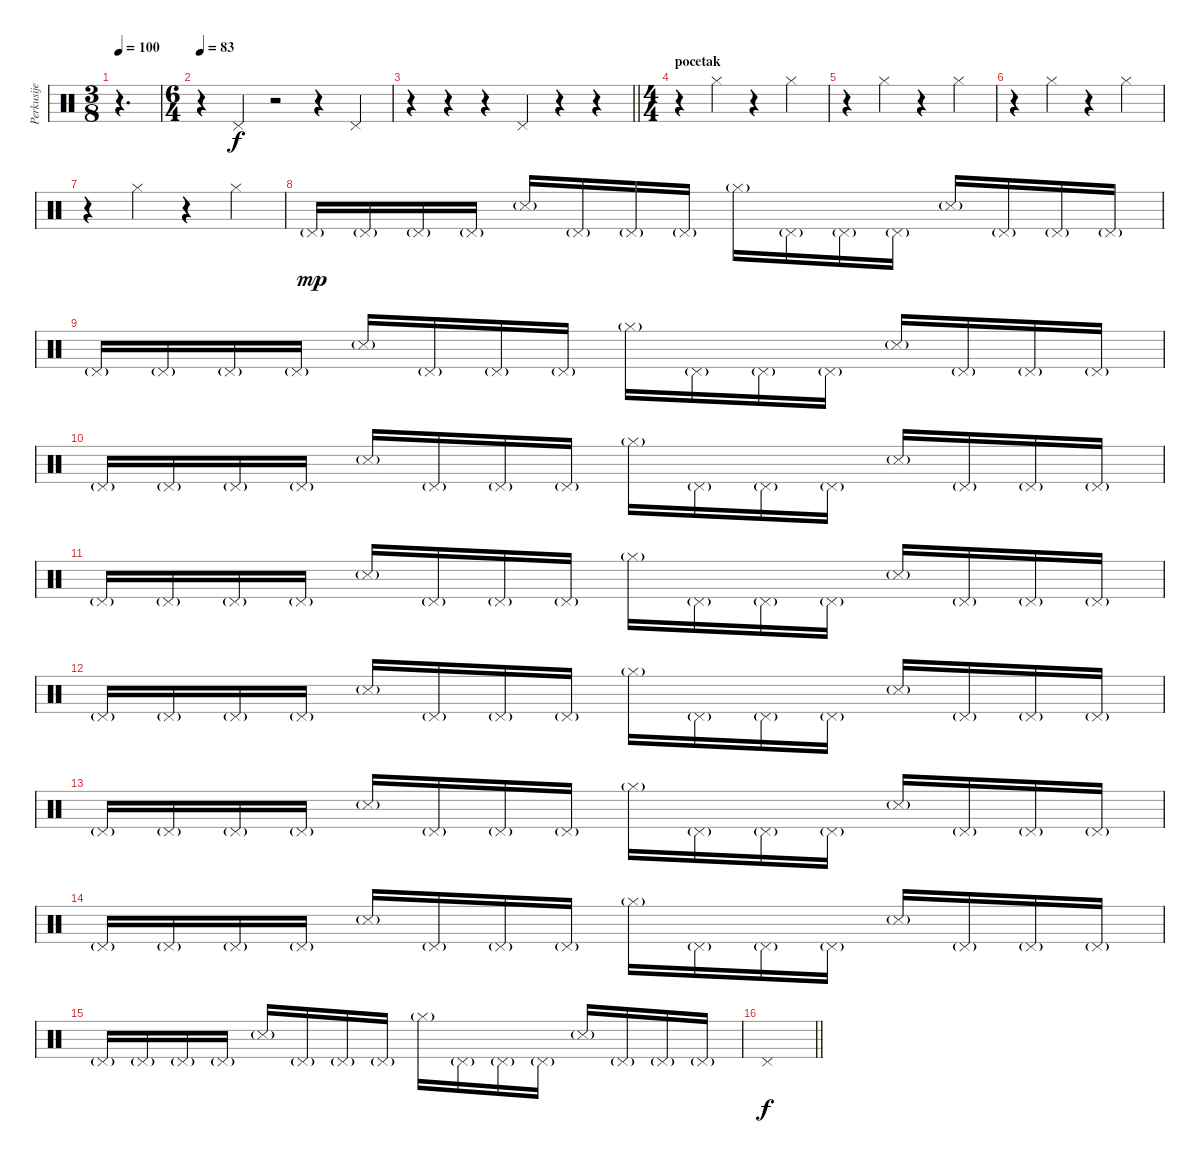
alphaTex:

\track ("Perkusije" "Perkusije") {instrument percussion}
\staff {score}
\articulation defaults
\ts (3 8)
\tempo 100
\clef neutral
\ks c
r.4{d dy mp} |
\ts (6 4)
\tempo 83
r.4 "Pedal Hi-Hat (hit)".4{dy f} r.2 r.4 "Pedal Hi-Hat (hit)".4 |
\barLineRight lightlight
r.4 r.4 r.4 "Pedal Hi-Hat (hit)".4 r.4 r.4 |
\ts (4 4)
\section ("" "pocetak")
r.4 "Hi-Hat (closed)".4 r.4 "Hi-Hat (closed)".4 |
r.4 "Hi-Hat (closed)".4 r.4 "Hi-Hat (closed)".4 |
r.4 "Hi-Hat (closed)".4 r.4 "Hi-Hat (closed)".4 |
r.4 "Hi-Hat (closed)".4 r.4 "Hi-Hat (closed)".4 |
"Pedal Hi-Hat (hit)"{g}.16{dy mp} "Pedal Hi-Hat (hit)"{g}.16 "Pedal Hi-Hat (hit)"{g}.16 "Pedal Hi-Hat (hit)"{g}.16 "Snare (side stick) 3"{g}.16 "Pedal Hi-Hat (hit)"{g}.16 "Pedal Hi-Hat (hit)"{g}.16 "Pedal Hi-Hat (hit)"{g}.16 "Hi-Hat (closed)"{g}.16 "Pedal Hi-Hat (hit)"{g}.16 "Pedal Hi-Hat (hit)"{g}.16 "Pedal Hi-Hat (hit)"{g}.16 "Snare (side stick) 3"{g}.16 "Pedal Hi-Hat (hit)"{g}.16 "Pedal Hi-Hat (hit)"{g}.16 "Pedal Hi-Hat (hit)"{g}.16 |
"Pedal Hi-Hat (hit)"{g}.16 "Pedal Hi-Hat (hit)"{g}.16 "Pedal Hi-Hat (hit)"{g}.16 "Pedal Hi-Hat (hit)"{g}.16 "Snare (side stick) 3"{g}.16 "Pedal Hi-Hat (hit)"{g}.16 "Pedal Hi-Hat (hit)"{g}.16 "Pedal Hi-Hat (hit)"{g}.16 "Hi-Hat (closed)"{g}.16 "Pedal Hi-Hat (hit)"{g}.16 "Pedal Hi-Hat (hit)"{g}.16 "Pedal Hi-Hat (hit)"{g}.16 "Snare (side stick) 3"{g}.16 "Pedal Hi-Hat (hit)"{g}.16 "Pedal Hi-Hat (hit)"{g}.16 "Pedal Hi-Hat (hit)"{g}.16 |
"Pedal Hi-Hat (hit)"{g}.16 "Pedal Hi-Hat (hit)"{g}.16 "Pedal Hi-Hat (hit)"{g}.16 "Pedal Hi-Hat (hit)"{g}.16 "Snare (side stick) 3"{g}.16 "Pedal Hi-Hat (hit)"{g}.16 "Pedal Hi-Hat (hit)"{g}.16 "Pedal Hi-Hat (hit)"{g}.16 "Hi-Hat (closed)"{g}.16 "Pedal Hi-Hat (hit)"{g}.16 "Pedal Hi-Hat (hit)"{g}.16 "Pedal Hi-Hat (hit)"{g}.16 "Snare (side stick) 3"{g}.16 "Pedal Hi-Hat (hit)"{g}.16 "Pedal Hi-Hat (hit)"{g}.16 "Pedal Hi-Hat (hit)"{g}.16 |
"Pedal Hi-Hat (hit)"{g}.16 "Pedal Hi-Hat (hit)"{g}.16 "Pedal Hi-Hat (hit)"{g}.16 "Pedal Hi-Hat (hit)"{g}.16 "Snare (side stick) 3"{g}.16 "Pedal Hi-Hat (hit)"{g}.16 "Pedal Hi-Hat (hit)"{g}.16 "Pedal Hi-Hat (hit)"{g}.16 "Hi-Hat (closed)"{g}.16 "Pedal Hi-Hat (hit)"{g}.16 "Pedal Hi-Hat (hit)"{g}.16 "Pedal Hi-Hat (hit)"{g}.16 "Snare (side stick) 3"{g}.16 "Pedal Hi-Hat (hit)"{g}.16 "Pedal Hi-Hat (hit)"{g}.16 "Pedal Hi-Hat (hit)"{g}.16 |
"Pedal Hi-Hat (hit)"{g}.16 "Pedal Hi-Hat (hit)"{g}.16 "Pedal Hi-Hat (hit)"{g}.16 "Pedal Hi-Hat (hit)"{g}.16 "Snare (side stick) 3"{g}.16 "Pedal Hi-Hat (hit)"{g}.16 "Pedal Hi-Hat (hit)"{g}.16 "Pedal Hi-Hat (hit)"{g}.16 "Hi-Hat (closed)"{g}.16 "Pedal Hi-Hat (hit)"{g}.16 "Pedal Hi-Hat (hit)"{g}.16 "Pedal Hi-Hat (hit)"{g}.16 "Snare (side stick) 3"{g}.16 "Pedal Hi-Hat (hit)"{g}.16 "Pedal Hi-Hat (hit)"{g}.16 "Pedal Hi-Hat (hit)"{g}.16 |
"Pedal Hi-Hat (hit)"{g}.16 "Pedal Hi-Hat (hit)"{g}.16 "Pedal Hi-Hat (hit)"{g}.16 "Pedal Hi-Hat (hit)"{g}.16 "Snare (side stick) 3"{g}.16 "Pedal Hi-Hat (hit)"{g}.16 "Pedal Hi-Hat (hit)"{g}.16 "Pedal Hi-Hat (hit)"{g}.16 "Hi-Hat (closed)"{g}.16 "Pedal Hi-Hat (hit)"{g}.16 "Pedal Hi-Hat (hit)"{g}.16 "Pedal Hi-Hat (hit)"{g}.16 "Snare (side stick) 3"{g}.16 "Pedal Hi-Hat (hit)"{g}.16 "Pedal Hi-Hat (hit)"{g}.16 "Pedal Hi-Hat (hit)"{g}.16 |
"Pedal Hi-Hat (hit)"{g}.16 "Pedal Hi-Hat (hit)"{g}.16 "Pedal Hi-Hat (hit)"{g}.16 "Pedal Hi-Hat (hit)"{g}.16 "Snare (side stick) 3"{g}.16 "Pedal Hi-Hat (hit)"{g}.16 "Pedal Hi-Hat (hit)"{g}.16 "Pedal Hi-Hat (hit)"{g}.16 "Hi-Hat (closed)"{g}.16 "Pedal Hi-Hat (hit)"{g}.16 "Pedal Hi-Hat (hit)"{g}.16 "Pedal Hi-Hat (hit)"{g}.16 "Snare (side stick) 3"{g}.16 "Pedal Hi-Hat (hit)"{g}.16 "Pedal Hi-Hat (hit)"{g}.16 "Pedal Hi-Hat (hit)"{g}.16 |
"Pedal Hi-Hat (hit)"{g}.16 "Pedal Hi-Hat (hit)"{g}.16 "Pedal Hi-Hat (hit)"{g}.16 "Pedal Hi-Hat (hit)"{g}.16 "Snare (side stick) 3"{g}.16 "Pedal Hi-Hat (hit)"{g}.16 "Pedal Hi-Hat (hit)"{g}.16 "Pedal Hi-Hat (hit)"{g}.16 "Hi-Hat (closed)"{g}.16 "Pedal Hi-Hat (hit)"{g}.16 "Pedal Hi-Hat (hit)"{g}.16 "Pedal Hi-Hat (hit)"{g}.16 "Snare (side stick) 3"{g}.16 "Pedal Hi-Hat (hit)"{g}.16 "Pedal Hi-Hat (hit)"{g}.16 "Pedal Hi-Hat (hit)"{g}.16 |
\barLineRight lightlight "Pedal Hi-Hat (hit)".1{dy f}
